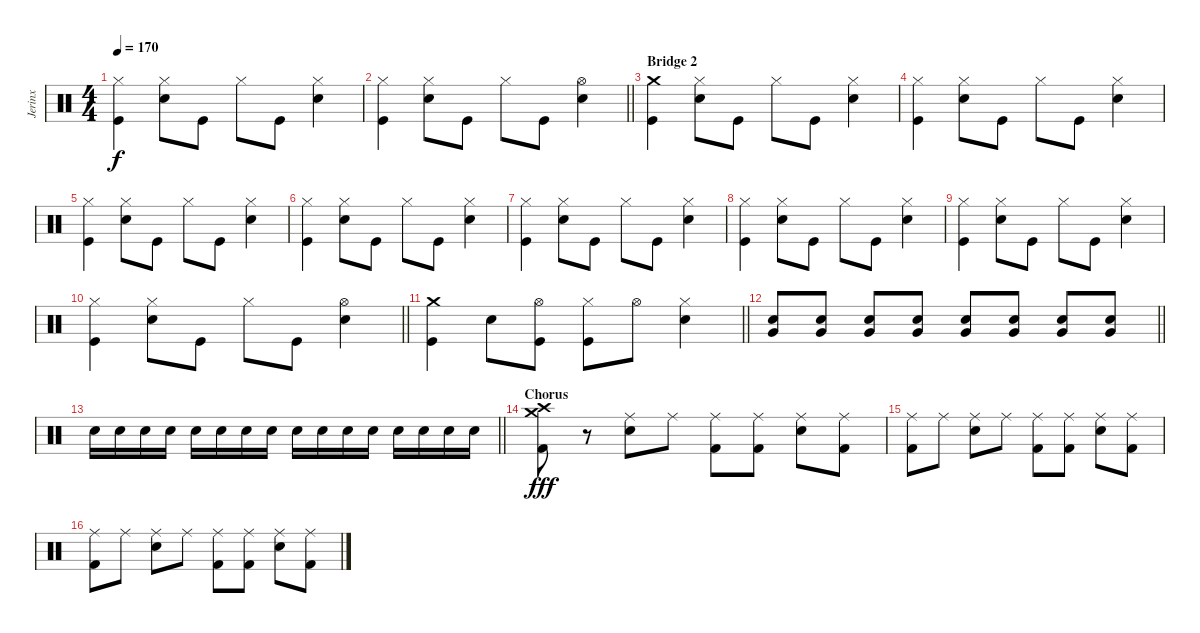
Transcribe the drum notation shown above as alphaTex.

\track ("Jerinx" "Jerinx") {instrument percussion}
\staff {score}
\articulation defaults
\ts (4 4)
\tempo 170
\clef neutral
\ks c
("Kick (hit)" "Hi-Hat (closed)").4{dy f} ("Snare (hit) 2" "Hi-Hat (closed)").8 "Kick (hit)".8 "Hi-Hat (closed)".8 "Kick (hit)".8 ("Snare (hit) 2" "Hi-Hat (closed)").4 |
\barLineRight lightlight
("Kick (hit)" "Hi-Hat (closed)").4 ("Snare (hit) 2" "Hi-Hat (closed)").8 "Kick (hit)".8 "Hi-Hat (closed)".8 "Kick (hit)".8 ("Snare (hit) 2" "Hi-Hat (open)").4 |
\section ("" "Bridge 2")
("Kick (hit)" "Crash medium (hit)").4 ("Snare (hit) 2" "Hi-Hat (closed)").8 "Kick (hit)".8 "Hi-Hat (closed)".8 "Kick (hit)".8 ("Snare (hit) 2" "Hi-Hat (closed)").4 |
("Kick (hit)" "Hi-Hat (closed)").4 ("Snare (hit) 2" "Hi-Hat (closed)").8 "Kick (hit)".8 "Hi-Hat (closed)".8 "Kick (hit)".8 ("Snare (hit) 2" "Hi-Hat (closed)").4 |
("Kick (hit)" "Hi-Hat (closed)").4 ("Snare (hit) 2" "Hi-Hat (closed)").8 "Kick (hit)".8 "Hi-Hat (closed)".8 "Kick (hit)".8 ("Snare (hit) 2" "Hi-Hat (closed)").4 |
("Kick (hit)" "Hi-Hat (closed)").4 ("Snare (hit) 2" "Hi-Hat (closed)").8 "Kick (hit)".8 "Hi-Hat (closed)".8 "Kick (hit)".8 ("Snare (hit) 2" "Hi-Hat (closed)").4 |
("Kick (hit)" "Hi-Hat (closed)").4 ("Snare (hit) 2" "Hi-Hat (closed)").8 "Kick (hit)".8 "Hi-Hat (closed)".8 "Kick (hit)".8 ("Snare (hit) 2" "Hi-Hat (closed)").4 |
("Kick (hit)" "Hi-Hat (closed)").4 ("Snare (hit) 2" "Hi-Hat (closed)").8 "Kick (hit)".8 "Hi-Hat (closed)".8 "Kick (hit)".8 ("Snare (hit) 2" "Hi-Hat (closed)").4 |
("Kick (hit)" "Hi-Hat (closed)").4 ("Snare (hit) 2" "Hi-Hat (closed)").8 "Kick (hit)".8 "Hi-Hat (closed)".8 "Kick (hit)".8 ("Snare (hit) 2" "Hi-Hat (closed)").4 |
\barLineRight lightlight
("Kick (hit)" "Hi-Hat (closed)").4 ("Snare (hit) 2" "Hi-Hat (closed)").8 "Kick (hit)".8 "Hi-Hat (closed)".8 "Kick (hit)".8 ("Snare (hit) 2" "Hi-Hat (open)").4 |
\barLineRight lightlight
("Kick (hit)" "Crash medium (hit)").4 "Snare (hit) 2".8 ("Kick (hit)" "Hi-Hat (open)").8 ("Kick (hit)" "Hi-Hat (closed)").8 "Hi-Hat (open)".8 ("Snare (hit) 2" "Hi-Hat (closed)").4 |
\barLineRight lightlight
("Snare (hit) 2" "Very Low Tom (hit)").8 ("Snare (hit) 2" "Very Low Tom (hit)").8 ("Snare (hit) 2" "Very Low Tom (hit)").8 ("Snare (hit) 2" "Very Low Tom (hit)").8 ("Snare (hit) 2" "Very Low Tom (hit)").8 ("Snare (hit) 2" "Very Low Tom (hit)").8 ("Snare (hit) 2" "Very Low Tom (hit)").8 ("Snare (hit) 2" "Very Low Tom (hit)").8 |
\barLineRight lightlight "Snare (hit) 2".16 "Snare (hit) 2".16 "Snare (hit) 2".16 "Snare (hit) 2".16 "Snare (hit) 2".16 "Snare (hit) 2".16 "Snare (hit) 2".16 "Snare (hit) 2".16 "Snare (hit) 2".16 "Snare (hit) 2".16 "Snare (hit) 2".16 "Snare (hit) 2".16 "Snare (hit) 2".16 "Snare (hit) 2".16 "Snare (hit) 2".16 "Snare (hit) 2".16
|
\section ("" "Chorus")
("Kick (hit) 2" "Crash high (hit)" "Crash medium (hit)").8{dy fff} r.8 ("Snare (hit) 2" "Ride (middle)").8 "Ride (middle)".8 ("Kick (hit) 2" "Ride (middle)").8 ("Kick (hit) 2" "Ride (middle)").8 ("Snare (hit) 2" "Ride (middle)").8 ("Kick (hit) 2" "Ride (middle)").8 |
("Kick (hit) 2" "Ride (middle)").8 "Ride (middle)".8 ("Snare (hit) 2" "Ride (middle)").8 "Ride (middle)".8 ("Kick (hit) 2" "Ride (middle)").8 ("Kick (hit) 2" "Ride (middle)").8 ("Snare (hit) 2" "Ride (middle)").8 ("Kick (hit) 2" "Ride (middle)").8 |
("Kick (hit) 2" "Ride (middle)").8 "Ride (middle)".8 ("Snare (hit) 2" "Ride (middle)").8 "Ride (middle)".8 ("Kick (hit) 2" "Ride (middle)").8 ("Kick (hit) 2" "Ride (middle)").8 ("Snare (hit) 2" "Ride (middle)").8 ("Kick (hit) 2" "Ride (middle)").8
